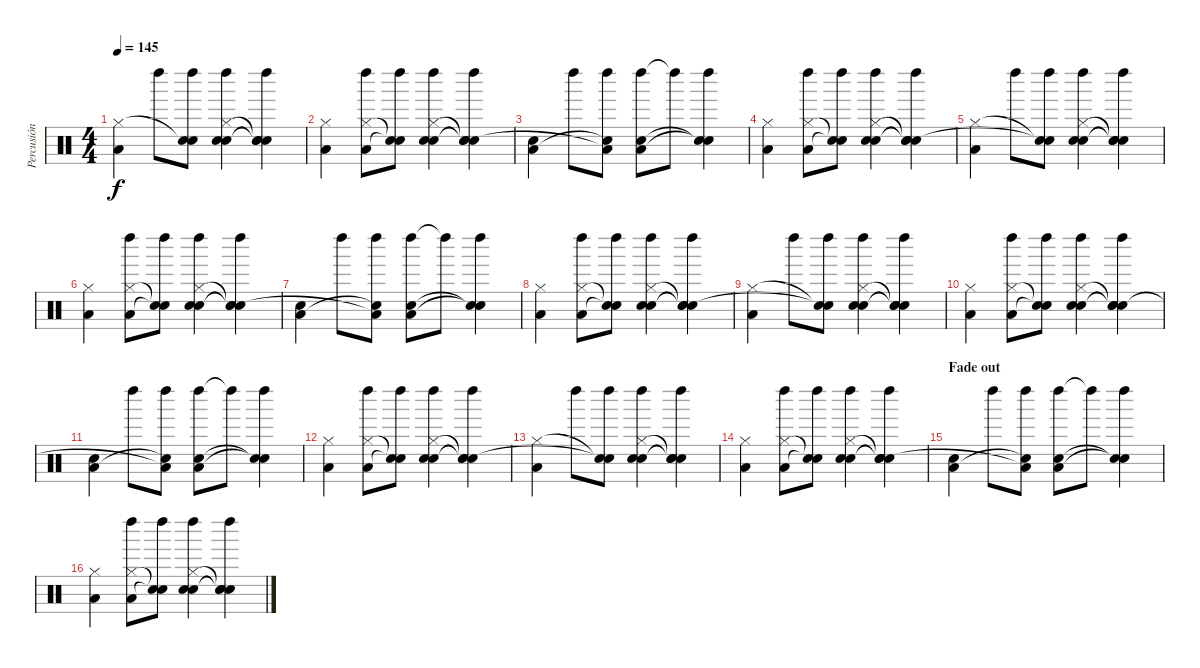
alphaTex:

\track ("Percusión" "Percusión") {instrument percussion}
\staff {score}
\articulation defaults
\ts (4 4)
\tempo 145
\clef neutral
\ks c
("Low Floor Tom (hit)" "Hi-Hat (closed)").4{dy f} "Left Maraca (hit)".8 ("Left Maraca (hit)" "Snare (hit)"{t} "Snare (hit)"{t}).8 ("Left Maraca (hit)" "Electric Snare (hit)" "Hi-Hat (closed)" "Snare (hit) 2").4 ("Left Maraca (hit)" "Snare (hit)"{t} "Snare (hit)"{t} "Snare (hit)"{t}).4 |
("Low Floor Tom (hit)" "Hi-Hat (closed)").4 ("Left Maraca (hit)" "Low Floor Tom (hit)" "Hi-Hat (closed)").8 ("Left Maraca (hit)" "Snare (hit)"{t} "Snare (hit)"{t}).8 ("Left Maraca (hit)" "Electric Snare (hit)" "Hi-Hat (closed)" "Snare (hit) 2").4 ("Left Maraca (hit)" "Snare (hit)"{t} "Snare (hit)"{t} "Snare (hit)"{t}).4 |
("Snare (hit) 2" "Low Floor Tom (hit)").4 "Left Maraca (hit)".8 ("Left Maraca (hit)" "Snare (hit)"{t} "Low Floor Tom (hit)"{t}).8 ("Left Maraca (hit)" "Snare (hit) 2" "Low Floor Tom (hit)").8 "Left Maraca (hit)"{t}.8 ("Left Maraca (hit)" "Snare (hit)"{t} "Snare (hit)"{t}).4 |
("Low Floor Tom (hit)" "Hi-Hat (closed)").4 ("Left Maraca (hit)" "Low Floor Tom (hit)" "Hi-Hat (closed)").8 ("Left Maraca (hit)" "Snare (hit)"{t} "Snare (hit)"{t}).8 ("Left Maraca (hit)" "Electric Snare (hit)" "Hi-Hat (closed)" "Snare (hit) 2").4 ("Left Maraca (hit)" "Snare (hit)"{t} "Snare (hit)"{t} "Snare (hit)"{t}).4 |
("Low Floor Tom (hit)" "Hi-Hat (closed)").4 "Left Maraca (hit)".8 ("Left Maraca (hit)" "Snare (hit)"{t} "Snare (hit)"{t}).8 ("Left Maraca (hit)" "Electric Snare (hit)" "Hi-Hat (closed)" "Snare (hit) 2").4 ("Left Maraca (hit)" "Snare (hit)"{t} "Snare (hit)"{t} "Snare (hit)"{t}).4 |
("Low Floor Tom (hit)" "Hi-Hat (closed)").4 ("Left Maraca (hit)" "Low Floor Tom (hit)" "Hi-Hat (closed)").8 ("Left Maraca (hit)" "Snare (hit)"{t} "Snare (hit)"{t}).8 ("Left Maraca (hit)" "Electric Snare (hit)" "Hi-Hat (closed)" "Snare (hit) 2").4 ("Left Maraca (hit)" "Snare (hit)"{t} "Snare (hit)"{t} "Snare (hit)"{t}).4 |
("Snare (hit) 2" "Low Floor Tom (hit)").4 "Left Maraca (hit)".8 ("Left Maraca (hit)" "Snare (hit)"{t} "Low Floor Tom (hit)"{t}).8 ("Left Maraca (hit)" "Snare (hit) 2" "Low Floor Tom (hit)").8 "Left Maraca (hit)"{t}.8 ("Left Maraca (hit)" "Snare (hit)"{t} "Snare (hit)"{t}).4 |
("Low Floor Tom (hit)" "Hi-Hat (closed)").4 ("Left Maraca (hit)" "Low Floor Tom (hit)" "Hi-Hat (closed)").8 ("Left Maraca (hit)" "Snare (hit)"{t} "Snare (hit)"{t}).8 ("Left Maraca (hit)" "Electric Snare (hit)" "Hi-Hat (closed)" "Snare (hit) 2").4 ("Left Maraca (hit)" "Snare (hit)"{t} "Snare (hit)"{t} "Snare (hit)"{t}).4 |
("Low Floor Tom (hit)" "Hi-Hat (closed)").4 "Left Maraca (hit)".8 ("Left Maraca (hit)" "Snare (hit)"{t} "Snare (hit)"{t}).8 ("Left Maraca (hit)" "Electric Snare (hit)" "Hi-Hat (closed)" "Snare (hit) 2").4 ("Left Maraca (hit)" "Snare (hit)"{t} "Snare (hit)"{t} "Snare (hit)"{t}).4 |
("Low Floor Tom (hit)" "Hi-Hat (closed)").4 ("Left Maraca (hit)" "Low Floor Tom (hit)" "Hi-Hat (closed)").8 ("Left Maraca (hit)" "Snare (hit)"{t} "Snare (hit)"{t}).8 ("Left Maraca (hit)" "Electric Snare (hit)" "Hi-Hat (closed)" "Snare (hit) 2").4 ("Left Maraca (hit)" "Snare (hit)"{t} "Snare (hit)"{t} "Snare (hit)"{t}).4 |
("Snare (hit) 2" "Low Floor Tom (hit)").4 "Left Maraca (hit)".8 ("Left Maraca (hit)" "Snare (hit)"{t} "Low Floor Tom (hit)"{t}).8 ("Left Maraca (hit)" "Snare (hit) 2" "Low Floor Tom (hit)").8 "Left Maraca (hit)"{t}.8 ("Left Maraca (hit)" "Snare (hit)"{t} "Snare (hit)"{t}).4 |
("Low Floor Tom (hit)" "Hi-Hat (closed)").4 ("Left Maraca (hit)" "Low Floor Tom (hit)" "Hi-Hat (closed)").8 ("Left Maraca (hit)" "Snare (hit)"{t} "Snare (hit)"{t}).8 ("Left Maraca (hit)" "Electric Snare (hit)" "Hi-Hat (closed)" "Snare (hit) 2").4 ("Left Maraca (hit)" "Snare (hit)"{t} "Snare (hit)"{t} "Snare (hit)"{t}).4 |
("Low Floor Tom (hit)" "Hi-Hat (closed)").4 "Left Maraca (hit)".8 ("Left Maraca (hit)" "Snare (hit)"{t} "Snare (hit)"{t}).8 ("Left Maraca (hit)" "Electric Snare (hit)" "Hi-Hat (closed)" "Snare (hit) 2").4 ("Left Maraca (hit)" "Snare (hit)"{t} "Snare (hit)"{t} "Snare (hit)"{t}).4 |
("Low Floor Tom (hit)" "Hi-Hat (closed)").4 ("Left Maraca (hit)" "Low Floor Tom (hit)" "Hi-Hat (closed)").8 ("Left Maraca (hit)" "Snare (hit)"{t} "Snare (hit)"{t}).8 ("Left Maraca (hit)" "Electric Snare (hit)" "Hi-Hat (closed)" "Snare (hit) 2").4 ("Left Maraca (hit)" "Snare (hit)"{t} "Snare (hit)"{t} "Snare (hit)"{t}).4 |
\section ("" "Fade out")
("Snare (hit) 2" "Low Floor Tom (hit)").4 "Left Maraca (hit)".8 ("Left Maraca (hit)" "Snare (hit)"{t} "Low Floor Tom (hit)"{t}).8 ("Left Maraca (hit)" "Snare (hit) 2" "Low Floor Tom (hit)").8 "Left Maraca (hit)"{t}.8 ("Left Maraca (hit)" "Snare (hit)"{t} "Snare (hit)"{t}).4 |
("Low Floor Tom (hit)" "Hi-Hat (closed)").4 ("Left Maraca (hit)" "Low Floor Tom (hit)" "Hi-Hat (closed)").8 ("Left Maraca (hit)" "Snare (hit)"{t} "Snare (hit)"{t}).8 ("Left Maraca (hit)" "Electric Snare (hit)" "Hi-Hat (closed)" "Snare (hit) 2").4 ("Left Maraca (hit)" "Snare (hit)"{t} "Snare (hit)"{t} "Snare (hit)"{t}).4
